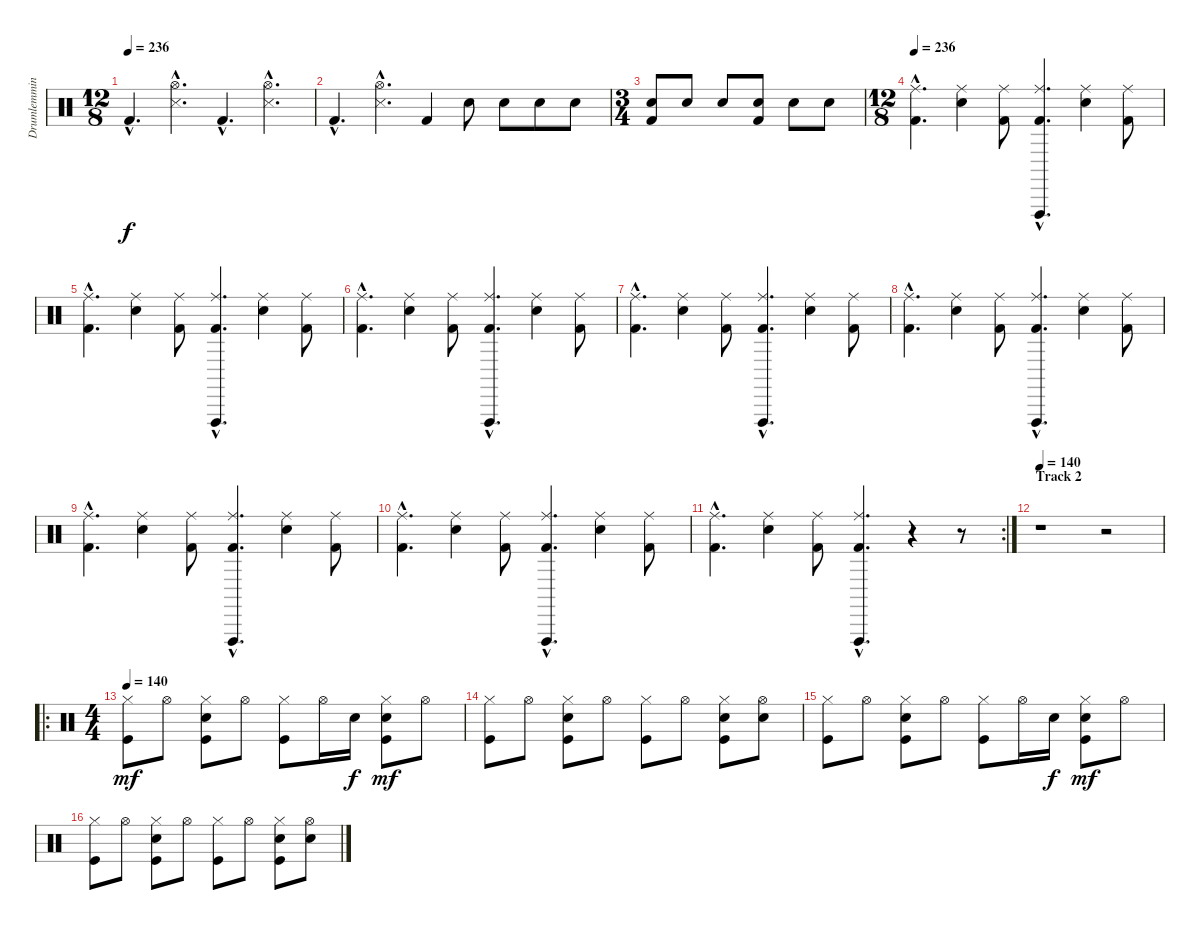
\track ("Drumlemming" "Drumlemmin") {instrument percussion}
\staff {score}
\articulation defaults
\ts (12 8)
\tempo 236
\clef neutral
\ks c "Kick (hit) 2"{hac}.4{d dy f}
("Hi-Hat (open)"{hac} "Snare (side stick) 3"{hac}).4{d} "Kick (hit) 2"{hac}.4{d} ("Hi-Hat (open)"{hac} "Snare (side stick) 3"{hac}).4{d} |
"Kick (hit) 2"{hac}.4{d} ("Hi-Hat (open)"{hac} "Snare (side stick) 3"{hac}).4{d} "Kick (hit) 2".4 "Snare (hit) 2".8 "Snare (hit) 2".8 "Snare (hit) 2".8 "Snare (hit) 2".8 |
\ts (3 4)
("Snare (hit) 2" "Kick (hit) 2").8 "Snare (hit) 2".8 "Snare (hit) 2".8 ("Snare (hit) 2" "Kick (hit) 2").8 "Snare (hit) 2".8 "Snare (hit) 2".8 |
\ts (12 8)
\tempo 236
("Ride (middle)"{hac} "Kick (hit) 2"{hac}).4{d} ("Ride (middle)" "Snare (hit) 2").4 ("Ride (middle)" "Kick (hit) 2").8 ("Ride (middle)"{hac} "Vibraslap (hit)"{hac} "Kick (hit) 2"{hac}).4{d} ("Ride (middle)" "Snare (hit) 2").4 ("Ride (middle)" "Kick (hit) 2").8 |
("Ride (middle)"{hac} "Kick (hit) 2"{hac}).4{d} ("Ride (middle)" "Snare (hit) 2").4 ("Ride (middle)" "Kick (hit) 2").8 ("Ride (middle)"{hac} "Vibraslap (hit)"{hac} "Kick (hit) 2"{hac}).4{d} ("Ride (middle)" "Snare (hit) 2").4 ("Ride (middle)" "Kick (hit) 2").8 |
("Ride (middle)"{hac} "Kick (hit) 2"{hac}).4{d} ("Ride (middle)" "Snare (hit) 2").4 ("Ride (middle)" "Kick (hit) 2").8 ("Ride (middle)"{hac} "Vibraslap (hit)"{hac} "Kick (hit) 2"{hac}).4{d} ("Ride (middle)" "Snare (hit) 2").4 ("Ride (middle)" "Kick (hit) 2").8 |
("Ride (middle)"{hac} "Kick (hit) 2"{hac}).4{d} ("Ride (middle)" "Snare (hit) 2").4 ("Ride (middle)" "Kick (hit) 2").8 ("Ride (middle)"{hac} "Vibraslap (hit)"{hac} "Kick (hit) 2"{hac}).4{d} ("Ride (middle)" "Snare (hit) 2").4 ("Ride (middle)" "Kick (hit) 2").8 |
("Ride (middle)"{hac} "Kick (hit) 2"{hac}).4{d} ("Ride (middle)" "Snare (hit) 2").4 ("Ride (middle)" "Kick (hit) 2").8 ("Ride (middle)"{hac} "Vibraslap (hit)"{hac} "Kick (hit) 2"{hac}).4{d} ("Ride (middle)" "Snare (hit) 2").4 ("Ride (middle)" "Kick (hit) 2").8 |
("Ride (middle)"{hac} "Kick (hit) 2"{hac}).4{d} ("Ride (middle)" "Snare (hit) 2").4 ("Ride (middle)" "Kick (hit) 2").8 ("Ride (middle)"{hac} "Vibraslap (hit)"{hac} "Kick (hit) 2"{hac}).4{d} ("Ride (middle)" "Snare (hit) 2").4 ("Ride (middle)" "Kick (hit) 2").8 |
("Ride (middle)"{hac} "Kick (hit) 2"{hac}).4{d} ("Ride (middle)" "Snare (hit) 2").4 ("Ride (middle)" "Kick (hit) 2").8 ("Ride (middle)"{hac} "Vibraslap (hit)"{hac} "Kick (hit) 2"{hac}).4{d} ("Ride (middle)" "Snare (hit) 2").4 ("Ride (middle)" "Kick (hit) 2").8 |
\rc 2
("Ride (middle)"{hac} "Kick (hit) 2"{hac}).4{d} ("Ride (middle)" "Snare (hit) 2").4 ("Ride (middle)" "Kick (hit) 2").8 ("Ride (middle)"{hac} "Vibraslap (hit)"{hac} "Kick (hit) 2"{hac}).4{d} r.4 r.8 |
\section ("" "Track 2")
\tempo 140
r.1 r.2 |
\ro
\ts (4 4)
\tempo 140
("Hi-Hat (closed)" "Kick (hit)").8{dy mf} "Hi-Hat (open)".8 ("Hi-Hat (closed)" "Snare (hit) 2" "Kick (hit)").8 "Hi-Hat (open)".8 ("Hi-Hat (closed)" "Kick (hit)").8 "Hi-Hat (open)".16 "Snare (hit) 2".16{dy f} ("Hi-Hat (closed)" "Snare (hit) 2" "Kick (hit)").8{dy mf} "Hi-Hat (open)".8 |
("Hi-Hat (closed)" "Kick (hit)").8 "Hi-Hat (open)".8 ("Hi-Hat (closed)" "Snare (hit) 2" "Kick (hit)").8 "Hi-Hat (open)".8 ("Hi-Hat (closed)" "Kick (hit)").8 "Hi-Hat (open)".8 ("Hi-Hat (closed)" "Snare (hit) 2" "Kick (hit)").8 ("Hi-Hat (open)" "Snare (hit) 2").8 |
("Hi-Hat (closed)" "Kick (hit)").8 "Hi-Hat (open)".8 ("Hi-Hat (closed)" "Snare (hit) 2" "Kick (hit)").8 "Hi-Hat (open)".8 ("Hi-Hat (closed)" "Kick (hit)").8 "Hi-Hat (open)".16 "Snare (hit) 2".16{dy f} ("Hi-Hat (closed)" "Snare (hit) 2" "Kick (hit)").8{dy mf} "Hi-Hat (open)".8 |
("Hi-Hat (closed)" "Kick (hit)").8 "Hi-Hat (open)".8 ("Hi-Hat (closed)" "Snare (hit) 2" "Kick (hit)").8 "Hi-Hat (open)".8 ("Hi-Hat (closed)" "Kick (hit)").8 "Hi-Hat (open)".8 ("Hi-Hat (closed)" "Snare (hit) 2" "Kick (hit)").8 ("Hi-Hat (open)" "Snare (hit) 2").8
